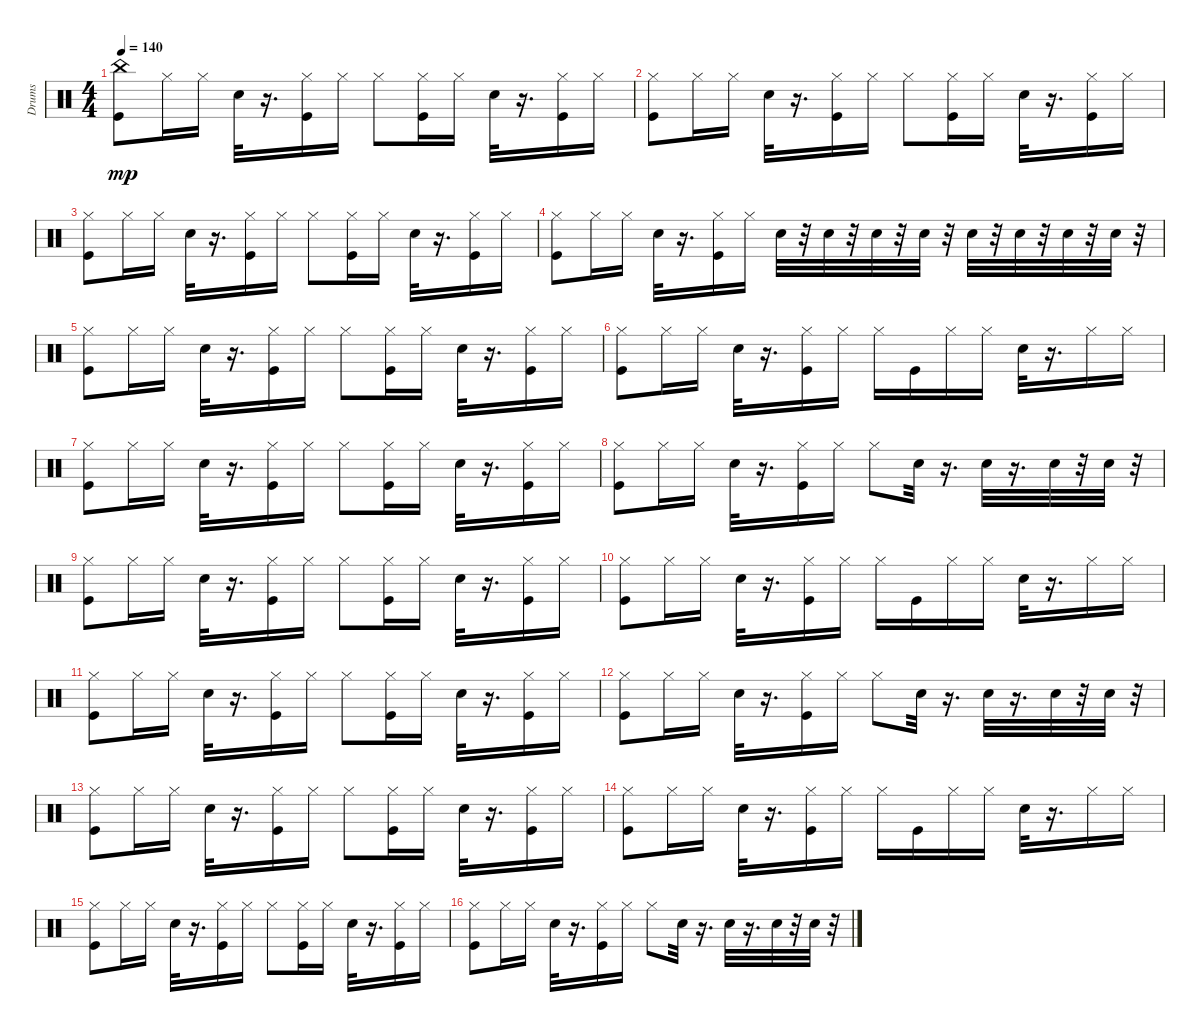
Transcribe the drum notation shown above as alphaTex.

\track ("Drums" "Drums") {instrument percussion}
\staff {score}
\articulation defaults
\ts (4 4)
\tempo 140
\clef neutral
\ks c
("Kick (hit)" "China (hit)").8{dy mp volume 12} "Hi-Hat (closed)".16 "Hi-Hat (closed)".16 "Electric Snare (hit)".32 r.16{d} ("Kick (hit)" "Hi-Hat (closed)").16 "Hi-Hat (closed)".16 "Hi-Hat (closed)".8 ("Kick (hit)" "Hi-Hat (closed)").16 "Hi-Hat (closed)".16 "Electric Snare (hit)".32 r.16{d} ("Kick (hit)" "Hi-Hat (closed)").16 "Hi-Hat (closed)".16 |
("Kick (hit)" "Hi-Hat (closed)").8{volume 12} "Hi-Hat (closed)".16 "Hi-Hat (closed)".16 "Electric Snare (hit)".32 r.16{d} ("Kick (hit)" "Hi-Hat (closed)").16 "Hi-Hat (closed)".16 "Hi-Hat (closed)".8 ("Kick (hit)" "Hi-Hat (closed)").16 "Hi-Hat (closed)".16 "Electric Snare (hit)".32 r.16{d} ("Kick (hit)" "Hi-Hat (closed)").16 "Hi-Hat (closed)".16 |
("Kick (hit)" "Hi-Hat (closed)").8{volume 12} "Hi-Hat (closed)".16 "Hi-Hat (closed)".16 "Electric Snare (hit)".32 r.16{d} ("Kick (hit)" "Hi-Hat (closed)").16 "Hi-Hat (closed)".16 "Hi-Hat (closed)".8 ("Kick (hit)" "Hi-Hat (closed)").16 "Hi-Hat (closed)".16 "Electric Snare (hit)".32 r.16{d} ("Kick (hit)" "Hi-Hat (closed)").16 "Hi-Hat (closed)".16 |
("Kick (hit)" "Hi-Hat (closed)").8{volume 12} "Hi-Hat (closed)".16 "Hi-Hat (closed)".16 "Electric Snare (hit)".32 r.16{d} ("Kick (hit)" "Hi-Hat (closed)").16 "Hi-Hat (closed)".16 "Electric Snare (hit)".32 r.32 "Electric Snare (hit)".32 r.32 "Electric Snare (hit)".32 r.32 "Electric Snare (hit)".32 r.32 "Electric Snare (hit)".32 r.32 "Electric Snare (hit)".32 r.32 "Electric Snare (hit)".32 r.32 "Electric Snare (hit)".32 r.32 |
("Kick (hit)" "Hi-Hat (closed)").8 "Hi-Hat (closed)".16 "Hi-Hat (closed)".16 "Electric Snare (hit)".32 r.16{d} ("Kick (hit)" "Hi-Hat (closed)").16 "Hi-Hat (closed)".16 "Hi-Hat (closed)".8 ("Kick (hit)" "Hi-Hat (closed)").16 "Hi-Hat (closed)".16 "Electric Snare (hit)".32 r.16{d} ("Kick (hit)" "Hi-Hat (closed)").16 "Hi-Hat (closed)".16 |
("Kick (hit)" "Hi-Hat (closed)").8{volume 12} "Hi-Hat (closed)".16 "Hi-Hat (closed)".16 "Electric Snare (hit)".32 r.16{d} ("Kick (hit)" "Hi-Hat (closed)").16 "Hi-Hat (closed)".16 "Hi-Hat (closed)".16 "Kick (hit)".16 "Hi-Hat (closed)".16 "Hi-Hat (closed)".16 "Electric Snare (hit)".32 r.16{d} "Hi-Hat (closed)".16 "Hi-Hat (closed)".16 |
("Kick (hit)" "Hi-Hat (closed)").8{volume 12} "Hi-Hat (closed)".16 "Hi-Hat (closed)".16 "Electric Snare (hit)".32 r.16{d} ("Kick (hit)" "Hi-Hat (closed)").16 "Hi-Hat (closed)".16 "Hi-Hat (closed)".8 ("Kick (hit)" "Hi-Hat (closed)").16 "Hi-Hat (closed)".16 "Electric Snare (hit)".32 r.16{d} ("Kick (hit)" "Hi-Hat (closed)").16 "Hi-Hat (closed)".16 |
("Kick (hit)" "Hi-Hat (closed)").8{volume 12} "Hi-Hat (closed)".16 "Hi-Hat (closed)".16 "Electric Snare (hit)".32 r.16{d} ("Kick (hit)" "Hi-Hat (closed)").16 "Hi-Hat (closed)".16 "Hi-Hat (closed)".8 "Electric Snare (hit)".32 r.16{d} "Electric Snare (hit)".32 r.16{d} "Electric Snare (hit)".32 r.32 "Electric Snare (hit)".32 r.32 |
("Kick (hit)" "Hi-Hat (closed)").8 "Hi-Hat (closed)".16 "Hi-Hat (closed)".16 "Electric Snare (hit)".32 r.16{d} ("Kick (hit)" "Hi-Hat (closed)").16 "Hi-Hat (closed)".16 "Hi-Hat (closed)".8 ("Kick (hit)" "Hi-Hat (closed)").16 "Hi-Hat (closed)".16 "Electric Snare (hit)".32 r.16{d} ("Kick (hit)" "Hi-Hat (closed)").16 "Hi-Hat (closed)".16 |
("Kick (hit)" "Hi-Hat (closed)").8{volume 12} "Hi-Hat (closed)".16 "Hi-Hat (closed)".16 "Electric Snare (hit)".32 r.16{d} ("Kick (hit)" "Hi-Hat (closed)").16 "Hi-Hat (closed)".16 "Hi-Hat (closed)".16 "Kick (hit)".16 "Hi-Hat (closed)".16 "Hi-Hat (closed)".16 "Electric Snare (hit)".32 r.16{d} "Hi-Hat (closed)".16 "Hi-Hat (closed)".16 |
("Kick (hit)" "Hi-Hat (closed)").8{volume 12} "Hi-Hat (closed)".16 "Hi-Hat (closed)".16 "Electric Snare (hit)".32 r.16{d} ("Kick (hit)" "Hi-Hat (closed)").16 "Hi-Hat (closed)".16 "Hi-Hat (closed)".8 ("Kick (hit)" "Hi-Hat (closed)").16 "Hi-Hat (closed)".16 "Electric Snare (hit)".32 r.16{d} ("Kick (hit)" "Hi-Hat (closed)").16 "Hi-Hat (closed)".16 |
("Kick (hit)" "Hi-Hat (closed)").8{volume 12} "Hi-Hat (closed)".16 "Hi-Hat (closed)".16 "Electric Snare (hit)".32 r.16{d} ("Kick (hit)" "Hi-Hat (closed)").16 "Hi-Hat (closed)".16 "Hi-Hat (closed)".8 "Electric Snare (hit)".32 r.16{d} "Electric Snare (hit)".32 r.16{d} "Electric Snare (hit)".32 r.32 "Electric Snare (hit)".32 r.32 |
("Kick (hit)" "Hi-Hat (closed)").8 "Hi-Hat (closed)".16 "Hi-Hat (closed)".16 "Electric Snare (hit)".32 r.16{d} ("Kick (hit)" "Hi-Hat (closed)").16 "Hi-Hat (closed)".16 "Hi-Hat (closed)".8 ("Kick (hit)" "Hi-Hat (closed)").16 "Hi-Hat (closed)".16 "Electric Snare (hit)".32 r.16{d} ("Kick (hit)" "Hi-Hat (closed)").16 "Hi-Hat (closed)".16 |
("Kick (hit)" "Hi-Hat (closed)").8{volume 12} "Hi-Hat (closed)".16 "Hi-Hat (closed)".16 "Electric Snare (hit)".32 r.16{d} ("Kick (hit)" "Hi-Hat (closed)").16 "Hi-Hat (closed)".16 "Hi-Hat (closed)".16 "Kick (hit)".16 "Hi-Hat (closed)".16 "Hi-Hat (closed)".16 "Electric Snare (hit)".32 r.16{d} "Hi-Hat (closed)".16 "Hi-Hat (closed)".16 |
("Kick (hit)" "Hi-Hat (closed)").8{volume 12} "Hi-Hat (closed)".16 "Hi-Hat (closed)".16 "Electric Snare (hit)".32 r.16{d} ("Kick (hit)" "Hi-Hat (closed)").16 "Hi-Hat (closed)".16 "Hi-Hat (closed)".8 ("Kick (hit)" "Hi-Hat (closed)").16 "Hi-Hat (closed)".16 "Electric Snare (hit)".32 r.16{d} ("Kick (hit)" "Hi-Hat (closed)").16 "Hi-Hat (closed)".16 |
("Kick (hit)" "Hi-Hat (closed)").8{volume 12} "Hi-Hat (closed)".16 "Hi-Hat (closed)".16 "Electric Snare (hit)".32 r.16{d} ("Kick (hit)" "Hi-Hat (closed)").16 "Hi-Hat (closed)".16 "Hi-Hat (closed)".8 "Electric Snare (hit)".32 r.16{d} "Electric Snare (hit)".32 r.16{d} "Electric Snare (hit)".32 r.32 "Electric Snare (hit)".32 r.32
